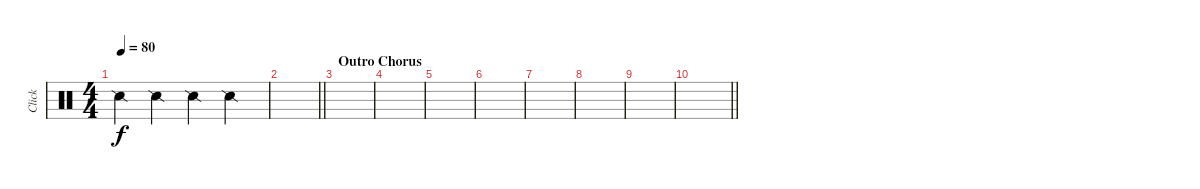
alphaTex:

\track ("Click" "Click") {instrument percussion}
\staff {score}
\articulation defaults
\ts (4 4)
\tempo 80
\clef neutral
\ks c "Snare (side stick) 2".4{dy f} "Snare (side stick) 2".4 "Snare (side stick) 2".4 "Snare (side stick) 2".4
|
\barLineRight lightlight
|
\section ("" "Outro Chorus")
|
|
|
|
|
|
|
\barLineRight lightlight
